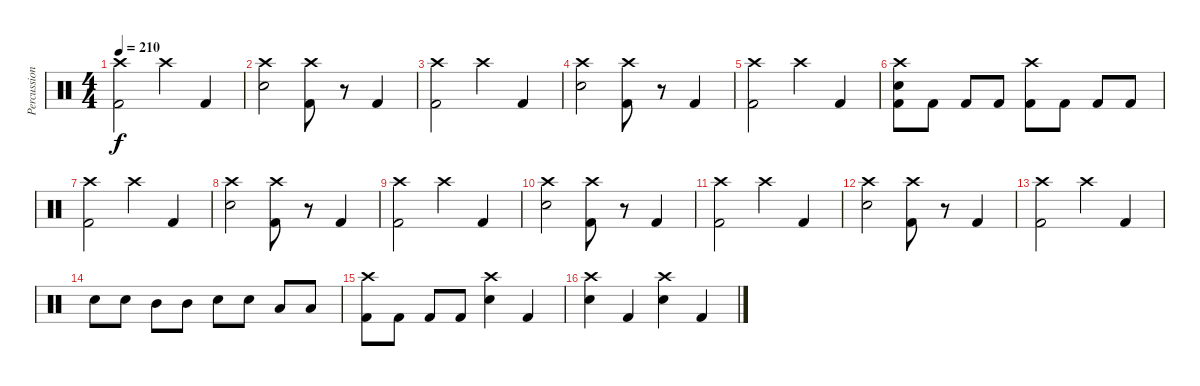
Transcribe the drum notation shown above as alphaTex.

\track ("Percussion" "Percussion") {instrument percussion}
\staff {score}
\articulation defaults
\ts (4 4)
\tempo 210
\clef neutral
\ks c
("Crash high (hit)" "Kick (hit) 2").2{dy f} "Crash high (hit)".4 "Kick (hit) 2".4 |
("Crash high (hit)" "Electric Snare (hit)").2 ("Crash high (hit)" "Kick (hit) 2").8 r.8 "Kick (hit) 2".4 |
("Crash high (hit)" "Kick (hit) 2").2 "Crash high (hit)".4 "Kick (hit) 2".4 |
("Crash high (hit)" "Electric Snare (hit)").2 ("Crash high (hit)" "Kick (hit) 2").8 r.8 "Kick (hit) 2".4 |
("Crash high (hit)" "Kick (hit) 2").2 "Crash high (hit)".4 "Kick (hit) 2".4 |
("Crash high (hit)" "Electric Snare (hit)" "Kick (hit) 2").8 "Kick (hit) 2".8 "Kick (hit) 2".8 "Kick (hit) 2".8 ("Crash high (hit)" "Kick (hit) 2").8 "Kick (hit) 2".8 "Kick (hit) 2".8 "Kick (hit) 2".8 |
("Crash high (hit)" "Kick (hit) 2").2 "Crash high (hit)".4 "Kick (hit) 2".4 |
("Crash high (hit)" "Electric Snare (hit)").2 ("Crash high (hit)" "Kick (hit) 2").8 r.8 "Kick (hit) 2".4 |
("Crash high (hit)" "Kick (hit) 2").2 "Crash high (hit)".4 "Kick (hit) 2".4 |
("Crash high (hit)" "Electric Snare (hit)").2 ("Crash high (hit)" "Kick (hit) 2").8 r.8 "Kick (hit) 2".4 |
("Crash high (hit)" "Kick (hit) 2").2 "Crash high (hit)".4 "Kick (hit) 2".4 |
("Crash high (hit)" "Electric Snare (hit)").2 ("Crash high (hit)" "Kick (hit) 2").8 r.8 "Kick (hit) 2".4 |
("Crash high (hit)" "Kick (hit) 2").2 "Crash high (hit)".4 "Kick (hit) 2".4 |
"Electric Snare (hit)".8 "Electric Snare (hit)".8 "Mid Tom (hit)".8 "Mid Tom (hit)".8 "Electric Snare (hit)".8 "Electric Snare (hit)".8 "Low Tom (hit)".8 "Low Tom (hit)".8 |
("Crash high (hit)" "Kick (hit) 2").8 "Kick (hit) 2".8 "Kick (hit) 2".8 "Kick (hit) 2".8 ("Crash high (hit)" "Electric Snare (hit)").4 "Kick (hit) 2".4 |
("Crash high (hit)" "Electric Snare (hit)").4 "Kick (hit) 2".4 ("Crash high (hit)" "Electric Snare (hit)").4 "Kick (hit) 2".4
